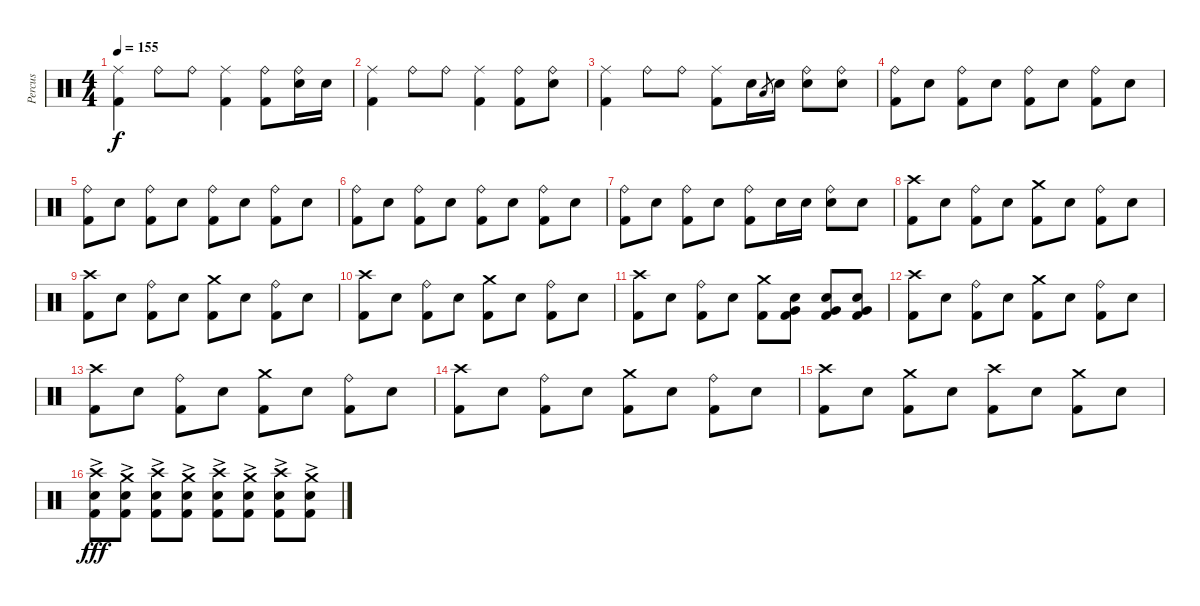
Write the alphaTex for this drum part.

\track ("Percus" "Percus") {instrument percussion}
\staff {score}
\articulation defaults
\ts (4 4)
\tempo 155
\clef neutral
\ks c
("Ride (middle)" "Kick (hit) 2").4{dy f} "Ride (bell)".8 "Ride (bell)".8 ("Ride (middle)" "Kick (hit) 2").4 ("Ride (bell)" "Kick (hit) 2").8 ("Ride (bell)" "Snare (hit) 2").16 "Snare (hit) 2".16 |
("Ride (middle)" "Kick (hit) 2").4 "Ride (bell)".8 "Ride (bell)".8 ("Ride (middle)" "Kick (hit) 2").4 ("Ride (bell)" "Kick (hit) 2").8 ("Ride (bell)" "Snare (hit) 2").8 |
("Ride (middle)" "Kick (hit) 2").4 "Ride (bell)".8 "Ride (bell)".8 ("Ride (middle)" "Kick (hit) 2").8 "Snare (hit) 2".16 "Low Tom (hit)".8{gr} "Snare (hit) 2".16 ("Ride (bell)" "Snare (hit) 2").8 ("Ride (bell)" "Snare (hit) 2").8 |
("Ride (bell)" "Kick (hit) 2").8 "Snare (hit) 2".8 ("Ride (bell)" "Kick (hit) 2").8 "Snare (hit) 2".8 ("Ride (bell)" "Kick (hit) 2").8 "Snare (hit) 2".8 ("Ride (bell)" "Kick (hit) 2").8 "Snare (hit) 2".8 |
("Ride (bell)" "Kick (hit) 2").8 "Snare (hit) 2".8 ("Ride (bell)" "Kick (hit) 2").8 "Snare (hit) 2".8 ("Ride (bell)" "Kick (hit) 2").8 "Snare (hit) 2".8 ("Ride (bell)" "Kick (hit) 2").8 "Snare (hit) 2".8 |
("Ride (bell)" "Kick (hit) 2").8 "Snare (hit) 2".8 ("Ride (bell)" "Kick (hit) 2").8 "Snare (hit) 2".8 ("Ride (bell)" "Kick (hit) 2").8 "Snare (hit) 2".8 ("Ride (bell)" "Kick (hit) 2").8 "Snare (hit) 2".8 |
("Ride (bell)" "Kick (hit) 2").8 "Snare (hit) 2".8 ("Ride (bell)" "Kick (hit) 2").8 "Snare (hit) 2".8 ("Ride (bell)" "Kick (hit) 2").8 "Snare (hit) 2".16 "Snare (hit) 2".16 ("Ride (bell)" "Snare (hit) 2").8 "Snare (hit) 2".8 |
("Crash high (hit)" "Kick (hit) 2").8 "Snare (hit) 2".8 ("Ride (bell)" "Kick (hit) 2").8 "Snare (hit) 2".8 ("Crash medium (hit)" "Kick (hit) 2").8 "Snare (hit) 2".8 ("Ride (bell)" "Kick (hit) 2").8 "Snare (hit) 2".8 |
("Crash high (hit)" "Kick (hit) 2").8 "Snare (hit) 2".8 ("Ride (bell)" "Kick (hit) 2").8 "Snare (hit) 2".8 ("Crash medium (hit)" "Kick (hit) 2").8 "Snare (hit) 2".8 ("Ride (bell)" "Kick (hit) 2").8 "Snare (hit) 2".8 |
("Crash high (hit)" "Kick (hit) 2").8 "Snare (hit) 2".8 ("Ride (bell)" "Kick (hit) 2").8 "Snare (hit) 2".8 ("Crash medium (hit)" "Kick (hit) 2").8 "Snare (hit) 2".8 ("Ride (bell)" "Kick (hit) 2").8 "Snare (hit) 2".8 |
("Crash high (hit)" "Kick (hit) 2").8 "Snare (hit) 2".8 ("Ride (bell)" "Kick (hit) 2").8 "Snare (hit) 2".8 ("Crash medium (hit)" "Kick (hit) 2").8 ("Snare (hit) 2" "Very Low Tom (hit)" "Kick (hit) 2").8 ("Snare (hit) 2" "Very Low Tom (hit)" "Kick (hit) 2").8 ("Snare (hit) 2" "Very Low Tom (hit)" "Kick (hit) 2").8 |
("Crash high (hit)" "Kick (hit) 2").8 "Snare (hit) 2".8 ("Ride (bell)" "Kick (hit) 2").8 "Snare (hit) 2".8 ("Crash medium (hit)" "Kick (hit) 2").8 "Snare (hit) 2".8 ("Ride (bell)" "Kick (hit) 2").8 "Snare (hit) 2".8 |
("Crash high (hit)" "Kick (hit) 2").8 "Snare (hit) 2".8 ("Ride (bell)" "Kick (hit) 2").8 "Snare (hit) 2".8 ("Crash medium (hit)" "Kick (hit) 2").8 "Snare (hit) 2".8 ("Ride (bell)" "Kick (hit) 2").8 "Snare (hit) 2".8 |
("Crash high (hit)" "Kick (hit) 2").8 "Snare (hit) 2".8 ("Ride (bell)" "Kick (hit) 2").8 "Snare (hit) 2".8 ("Crash medium (hit)" "Kick (hit) 2").8 "Snare (hit) 2".8 ("Ride (bell)" "Kick (hit) 2").8 "Snare (hit) 2".8 |
("Crash high (hit)" "Kick (hit) 2").8 "Snare (hit) 2".8 ("Crash medium (hit)" "Kick (hit) 2").8 "Snare (hit) 2".8 ("Crash high (hit)" "Kick (hit) 2").8 "Snare (hit) 2".8 ("Crash medium (hit)" "Kick (hit) 2").8 "Snare (hit) 2".8 |
("Crash high (hit)"{ac} "Snare (hit) 2" "Kick (hit) 2").8{dy fff} ("Crash medium (hit)"{ac} "Snare (hit) 2" "Kick (hit) 2").8 ("Crash high (hit)"{ac} "Snare (hit) 2" "Kick (hit) 2").8 ("Crash medium (hit)"{ac} "Snare (hit) 2" "Kick (hit) 2").8 ("Crash high (hit)"{ac} "Snare (hit) 2" "Kick (hit) 2").8 ("Crash medium (hit)"{ac} "Snare (hit) 2" "Kick (hit) 2").8 ("Crash high (hit)"{ac} "Snare (hit) 2" "Kick (hit) 2").8 ("Crash medium (hit)"{ac} "Snare (hit) 2" "Kick (hit) 2").8
